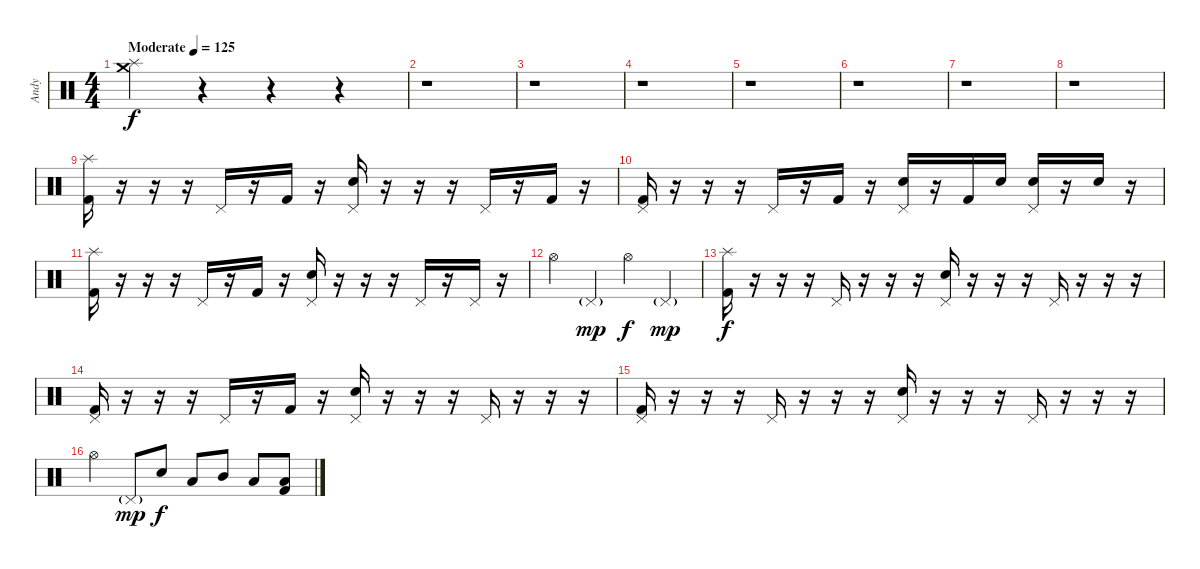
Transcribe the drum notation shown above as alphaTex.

\track ("Andy" "Andy") {instrument percussion}
\staff {score}
\articulation defaults
\ts (4 4)
\tempo (125 "Moderate")
\clef neutral
\ks c
("Splash (hit)" "Crash medium (hit)").4{dy f} r.4 r.4 r.4 |
r.1 |
r.1 |
r.1 |
r.1 |
r.1 |
r.1 |
r.1 |
("Splash (hit)" "Kick (hit) 2").16 r.16 r.16 r.16 "Pedal Hi-Hat (hit)".16 r.16 "Kick (hit) 2".16 r.16 ("Pedal Hi-Hat (hit)" "Snare (hit) 2").16 r.16 r.16 r.16 "Pedal Hi-Hat (hit)".16 r.16 "Kick (hit) 2".16 r.16 |
("Pedal Hi-Hat (hit)" "Kick (hit) 2").16 r.16 r.16 r.16 "Pedal Hi-Hat (hit)".16 r.16 "Kick (hit) 2".16 r.16 ("Pedal Hi-Hat (hit)" "Snare (hit) 2").16 r.16 "Kick (hit) 2".16 "Snare (hit) 2".16 ("Pedal Hi-Hat (hit)" "Snare (hit) 2").16 r.16 "Snare (hit) 2".16 r.16 |
("Splash (hit)" "Kick (hit) 2").16 r.16 r.16 r.16 "Pedal Hi-Hat (hit)".16 r.16 "Kick (hit) 2".16 r.16 ("Pedal Hi-Hat (hit)" "Snare (hit) 2").16 r.16 r.16 r.16 "Pedal Hi-Hat (hit)".16 r.16 "Pedal Hi-Hat (hit)".16 r.16 |
"Hi-Hat (open)".4 "Pedal Hi-Hat (hit)"{g}.4{dy mp} "Hi-Hat (open)".4{dy f} "Pedal Hi-Hat (hit)"{g}.4{dy mp} |
("Splash (hit)" "Kick (hit) 2").16{dy f} r.16 r.16 r.16 "Pedal Hi-Hat (hit)".16 r.16 r.16 r.16 ("Pedal Hi-Hat (hit)" "Snare (hit) 2").16 r.16 r.16 r.16 "Pedal Hi-Hat (hit)".16 r.16 r.16 r.16 |
("Pedal Hi-Hat (hit)" "Kick (hit) 2").16 r.16 r.16 r.16 "Pedal Hi-Hat (hit)".16 r.16 "Kick (hit) 2".16 r.16 ("Pedal Hi-Hat (hit)" "Snare (hit) 2").16 r.16 r.16 r.16 "Pedal Hi-Hat (hit)".16 r.16 r.16 r.16 |
("Pedal Hi-Hat (hit)" "Kick (hit) 2").16 r.16 r.16 r.16 "Pedal Hi-Hat (hit)".16 r.16 r.16 r.16 ("Pedal Hi-Hat (hit)" "Snare (hit) 2").16 r.16 r.16 r.16 "Pedal Hi-Hat (hit)".16 r.16 r.16 r.16 |
"Hi-Hat (open)".4 "Pedal Hi-Hat (hit)"{g}.8{dy mp} "Snare (hit) 2".8{dy f} "Low Tom (hit)".8 "Mid Tom (hit)".8 "Low Floor Tom (hit)".8 ("Low Floor Tom (hit)" "Kick (hit) 2").8
